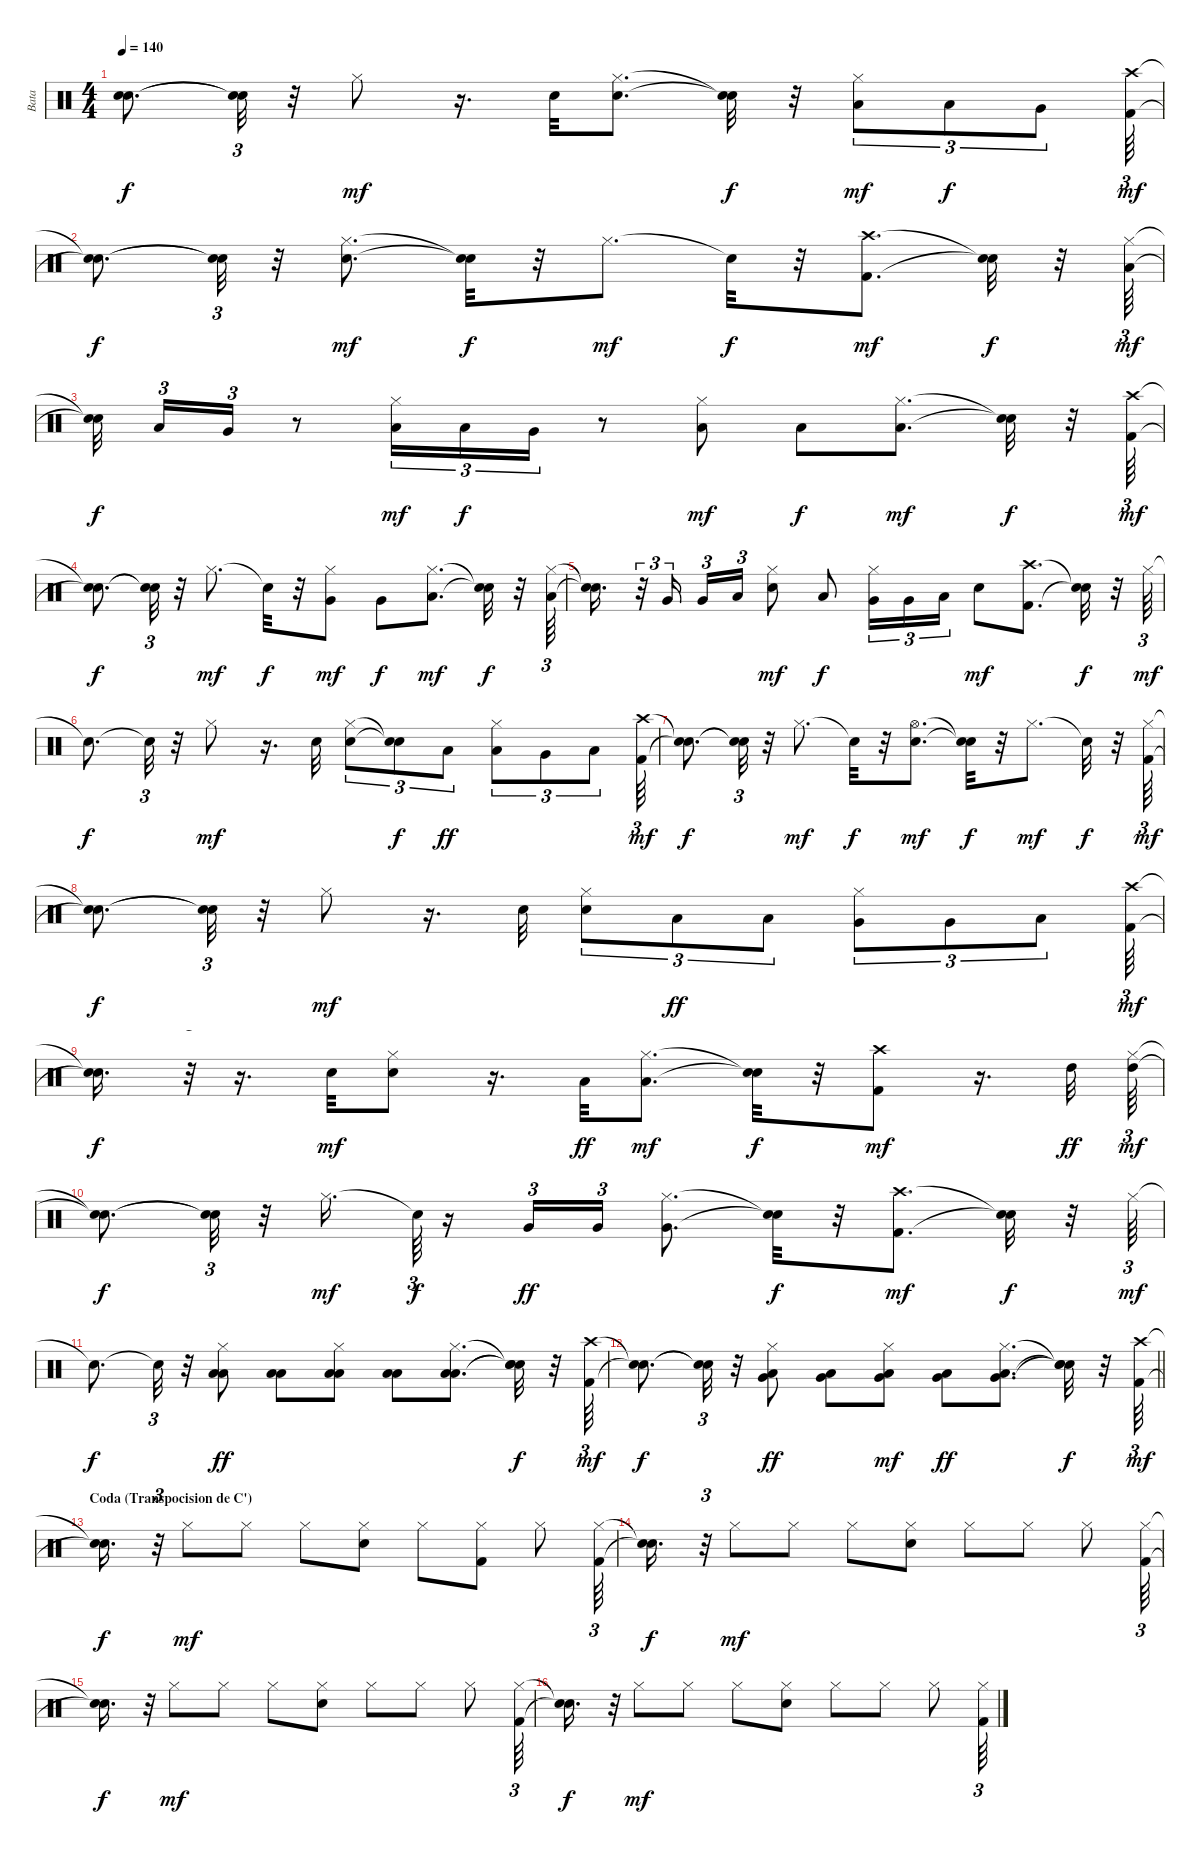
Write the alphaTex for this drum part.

\track ("Bata" "Bata") {instrument percussion}
\staff {score}
\articulation defaults
\ts (4 4)
\tempo 140
\clef neutral
\ks c
("Snare (hit)"{t} "Snare (hit)"{t}).8{d dy f} ("Snare (hit)"{t} "Snare (hit)"{t}).32{tu (3 2)} r.32 "Hi-Hat (closed)".8{dy mf} r.16{d} "Snare (hit) 2".32 ("Hi-Hat (closed)" "Snare (hit) 2").8{d} ("Snare (hit)"{t} "Snare (hit)"{t}).32{dy f} r.32 ("Hi-Hat (closed)" "Low Tom (hit)").8{tu (3 2) dy mf} "Low Tom (hit)".8{tu (3 2) dy f} "Very Low Tom (hit)".8{tu (3 2)} ("Crash high (hit)" "Kick (hit) 2").64{tu (3 2) dy mf} |
("Snare (hit)"{t} "Snare (hit)"{t}).8{d dy f} ("Snare (hit)"{t} "Snare (hit)"{t}).32{tu (3 2)} r.32 ("Snare (hit) 2" "Hi-Hat (closed)").8{d dy mf} ("Snare (hit)"{t} "Snare (hit)"{t}).32{dy f} r.32 "Hi-Hat (closed)".8{d dy mf} "Snare (hit)"{t}.32{dy f} r.32 ("Crash high (hit)" "Kick (hit) 2").8{d dy mf} ("Snare (hit)"{t} "Snare (hit)"{t}).32{dy f} r.32 ("Hi-Hat (closed)" "Low Tom (hit)").64{tu (3 2) dy mf} |
("Snare (hit)"{t} "Snare (hit)"{t}).32{dy f beam splitsecondary} "Low Tom (hit)".16{tu (3 2)} "Very Low Tom (hit)".16{tu (3 2)} r.8 ("Hi-Hat (closed)" "Low Tom (hit)").16{tu (3 2) dy mf} "Low Tom (hit)".16{tu (3 2) dy f} "Very Low Tom (hit)".16{tu (3 2)} r.8 ("Low Floor Tom (hit)" "Hi-Hat (closed)").8{dy mf} "Low Floor Tom (hit)".8{dy f} ("Low Floor Tom (hit)" "Hi-Hat (closed)").8{d dy mf} ("Snare (hit)"{t} "Snare (hit)"{t}).32{dy f} r.32 ("Crash high (hit)" "Kick (hit) 2").64{tu (3 2) dy mf} |
("Snare (hit)"{t} "Snare (hit)"{t}).8{d dy f} ("Snare (hit)"{t} "Snare (hit)"{t}).32{tu (3 2)} r.32 "Hi-Hat (closed)".8{d dy mf} "Snare (hit)"{t}.32{dy f} r.32 ("Hi-Hat (closed)" "Very Low Tom (hit)").8{dy mf} "Very Low Tom (hit)".8{dy f} ("Hi-Hat (closed)" "Low Floor Tom (hit)").8{d dy mf} ("Snare (hit)"{t} "Snare (hit)"{t}).32{dy f} r.32 ("Hi-Hat (closed)" "Low Tom (hit)").64{tu (3 2)} |
("Snare (hit)"{t} "Snare (hit)"{t}).16{d} r.32{tu (3 2)} "Very Low Tom (hit)".16{tu (3 2) beam splitsecondary} "Very Low Tom (hit)".16{tu (3 2)} "Low Floor Tom (hit)".16{tu (3 2)} ("Hi-Hat (closed)" "Snare (hit) 2").8{dy mf} "Low Tom (hit)".8{dy f} ("Very Low Tom (hit)" "Hi-Hat (closed)").16{tu (3 2)} "Very Low Tom (hit)".16{tu (3 2)} "Low Floor Tom (hit)".16{tu (3 2)} "Snare (hit) 2".8{dy mf} ("Crash high (hit)" "Kick (hit) 2").8{d} ("Snare (hit)"{t} "Snare (hit)"{t}).32{dy f} r.32 "Hi-Hat (closed)".64{tu (3 2) dy mf} |
"Snare (hit)"{t}.8{d dy f} "Snare (hit)"{t}.32{tu (3 2)} r.32 "Hi-Hat (closed)".8{dy mf} r.16{d} "Snare (hit) 2".32 ("Snare (hit) 2" "Hi-Hat (closed)").8{tu (3 2)} ("Snare (hit)"{t} "Snare (hit)"{t}).8{tu (3 2) dy f} "Low Tom (hit)".8{tu (3 2) dy ff} ("Hi-Hat (closed)" "Low Tom (hit)").8{tu (3 2)} "Very Low Tom (hit)".8{tu (3 2)} "Low Floor Tom (hit)".8{tu (3 2)} ("Crash high (hit)" "Kick (hit) 2").64{tu (3 2) dy mf} |
("Snare (hit)"{t} "Snare (hit)"{t}).8{d dy f} ("Snare (hit)"{t} "Snare (hit)"{t}).32{tu (3 2)} r.32 "Hi-Hat (closed)".8{d dy mf} "Snare (hit)"{t}.32{dy f} r.32 ("Snare (hit) 2" "Hi-Hat (open)").8{d dy mf} ("Snare (hit)"{t} "Snare (hit)"{t}).32{dy f} r.32 "Hi-Hat (closed)".8{d dy mf} "Snare (hit)"{t}.32{dy f} r.32 ("Kick (hit) 2" "Hi-Hat (closed)").64{tu (3 2) dy mf} |
("Snare (hit)"{t} "Snare (hit)"{t}).8{d dy f} ("Snare (hit)"{t} "Snare (hit)"{t}).32{tu (3 2)} r.32 "Hi-Hat (closed)".8{dy mf} r.16{d} "Snare (hit) 2".32 ("Hi-Hat (closed)" "Snare (hit) 2").8{tu (3 2)} "Low Tom (hit)".8{tu (3 2) dy ff} "Low Tom (hit)".8{tu (3 2)} ("Hi-Hat (closed)" "Very Low Tom (hit)").8{tu (3 2)} "Very Low Tom (hit)".8{tu (3 2)} "Low Floor Tom (hit)".8{tu (3 2)} ("Kick (hit) 2" "Crash high (hit)").64{tu (3 2) dy mf} |
("Snare (hit)"{t} "Snare (hit)"{t}).16{d dy f} r.32{tu (3 2)} r.16{d} "Snare (hit) 2".32{dy mf} ("Snare (hit) 2" "Hi-Hat (closed)").8 r.16{d} "Low Tom (hit)".32{dy ff} ("Low Tom (hit)" "Hi-Hat (closed)").8{d dy mf} ("Snare (hit)"{t} "Snare (hit)"{t}).32{dy f} r.32 ("Kick (hit) 2" "Crash high (hit)").8{dy mf} r.16{d} "High Tom (hit)".32{dy ff} ("High Tom (hit)" "Hi-Hat (closed)").64{tu (3 2) dy mf} |
("Snare (hit)"{t} "Snare (hit)"{t}).8{d dy f} ("Snare (hit)"{t} "Snare (hit)"{t}).32{tu (3 2)} r.32 "Hi-Hat (closed)".16{d dy mf} "Snare (hit)"{t}.64{tu (3 2) dy f} r.16 "Very Low Tom (hit)".16{tu (3 2) dy ff} "Very Low Tom (hit)".16{tu (3 2)} ("Hi-Hat (closed)" "Very Low Tom (hit)").8{d} ("Snare (hit)"{t} "Snare (hit)"{t}).32{dy f} r.32 ("Crash high (hit)" "Kick (hit) 2").8{d dy mf} ("Snare (hit)"{t} "Snare (hit)"{t}).32{dy f} r.32 "Hi-Hat (closed)".64{tu (3 2) dy mf} |
"Snare (hit)"{t}.8{d dy f} "Snare (hit)"{t}.32{tu (3 2)} r.32 ("Hi-Hat (closed)" "Low Floor Tom (hit)" "Low Tom (hit)").8{dy ff} ("Low Tom (hit)" "Low Floor Tom (hit)").8 ("Hi-Hat (closed)" "Low Floor Tom (hit)" "Low Tom (hit)").8 ("Low Tom (hit)" "Low Floor Tom (hit)").8 ("Hi-Hat (closed)" "Low Floor Tom (hit)" "Low Tom (hit)").8{d} ("Snare (hit)"{t} "Snare (hit)"{t} "Snare (hit)"{t}).32{dy f} r.32 ("Crash high (hit)" "Kick (hit) 2").64{tu (3 2) dy mf} |
\barLineRight lightlight
("Snare (hit)"{t} "Snare (hit)"{t}).8{d dy f} ("Snare (hit)"{t} "Snare (hit)"{t}).32{tu (3 2)} r.32 ("Hi-Hat (closed)" "Very Low Tom (hit)" "Low Floor Tom (hit)").8{dy ff} ("Low Floor Tom (hit)" "Very Low Tom (hit)").8 ("Very Low Tom (hit)" "Low Floor Tom (hit)" "Hi-Hat (closed)").8{dy mf} ("Low Floor Tom (hit)" "Very Low Tom (hit)").8{dy ff} ("Very Low Tom (hit)" "Hi-Hat (closed)" "Low Floor Tom (hit)").8{d} ("Snare (hit)"{t} "Snare (hit)"{t} "Snare (hit)"{t}).32{dy f} r.32 ("Crash high (hit)" "Kick (hit) 2").64{tu (3 2) dy mf} |
\section ("" "Coda (Transpocision de C')")
("Snare (hit)"{t} "Snare (hit)"{t}).16{d dy f} r.32{tu (3 2)} "Hi-Hat (closed)".8{dy mf} "Hi-Hat (closed)".8 "Hi-Hat (closed)".8 ("Hi-Hat (closed)" "Snare (hit) 2").8 "Hi-Hat (closed)".8 ("Hi-Hat (closed)" "Kick (hit) 2").8 "Hi-Hat (closed)".8 ("Kick (hit) 2" "Hi-Hat (closed)").64{tu (3 2)} |
("Snare (hit)"{t} "Snare (hit)"{t}).16{d dy f} r.32{tu (3 2)} "Hi-Hat (closed)".8{dy mf} "Hi-Hat (closed)".8 "Hi-Hat (closed)".8 ("Snare (hit) 2" "Hi-Hat (closed)").8 "Hi-Hat (closed)".8 "Hi-Hat (closed)".8 "Hi-Hat (closed)".8 ("Kick (hit) 2" "Hi-Hat (closed)").64{tu (3 2)} |
("Snare (hit)"{t} "Snare (hit)"{t}).16{d dy f} r.32{tu (3 2)} "Hi-Hat (closed)".8{dy mf} "Hi-Hat (closed)".8 "Hi-Hat (closed)".8 ("Snare (hit) 2" "Hi-Hat (closed)").8 "Hi-Hat (closed)".8 "Hi-Hat (closed)".8 "Hi-Hat (closed)".8 ("Hi-Hat (closed)" "Kick (hit) 2").64{tu (3 2)} |
("Snare (hit)"{t} "Snare (hit)"{t}).16{d dy f} r.32{tu (3 2)} "Hi-Hat (closed)".8{dy mf} "Hi-Hat (closed)".8 "Hi-Hat (closed)".8 ("Hi-Hat (closed)" "Snare (hit) 2").8 "Hi-Hat (closed)".8 "Hi-Hat (closed)".8 "Hi-Hat (closed)".8 ("Kick (hit) 2" "Hi-Hat (closed)").64{tu (3 2)}
